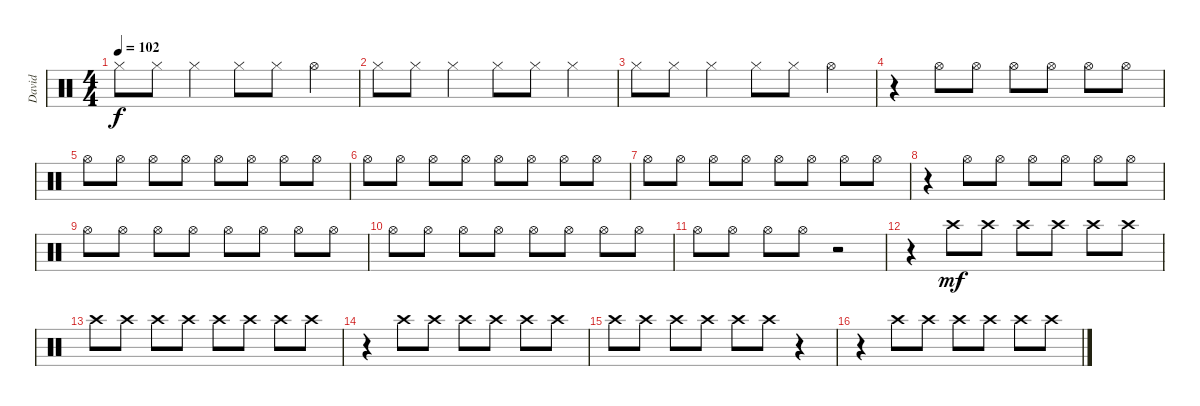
\track ("David" "David") {instrument percussion}
\staff {score}
\articulation defaults
\ts (4 4)
\tempo 102
\clef neutral
\ks c "Hi-Hat (closed)".8{dy f} "Hi-Hat (closed)".8 "Hi-Hat (closed)".4 "Hi-Hat (closed)".8 "Hi-Hat (closed)".8 "Hi-Hat (open)".4
|
"Hi-Hat (closed)".8 "Hi-Hat (closed)".8 "Hi-Hat (closed)".4 "Hi-Hat (closed)".8 "Hi-Hat (closed)".8 "Hi-Hat (closed)".4 |
"Hi-Hat (closed)".8 "Hi-Hat (closed)".8 "Hi-Hat (closed)".4 "Hi-Hat (closed)".8 "Hi-Hat (closed)".8 "Hi-Hat (open)".4 |
r.4 "Hi-Hat (open)".8 "Hi-Hat (open)".8 "Hi-Hat (open)".8 "Hi-Hat (open)".8 "Hi-Hat (open)".8 "Hi-Hat (open)".8 |
"Hi-Hat (open)".8 "Hi-Hat (open)".8 "Hi-Hat (open)".8 "Hi-Hat (open)".8 "Hi-Hat (open)".8 "Hi-Hat (open)".8 "Hi-Hat (open)".8 "Hi-Hat (open)".8 |
"Hi-Hat (open)".8 "Hi-Hat (open)".8 "Hi-Hat (open)".8 "Hi-Hat (open)".8 "Hi-Hat (open)".8 "Hi-Hat (open)".8 "Hi-Hat (open)".8 "Hi-Hat (open)".8 |
"Hi-Hat (open)".8 "Hi-Hat (open)".8 "Hi-Hat (open)".8 "Hi-Hat (open)".8 "Hi-Hat (open)".8 "Hi-Hat (open)".8 "Hi-Hat (open)".8 "Hi-Hat (open)".8 |
r.4 "Hi-Hat (open)".8 "Hi-Hat (open)".8 "Hi-Hat (open)".8 "Hi-Hat (open)".8 "Hi-Hat (open)".8 "Hi-Hat (open)".8 |
"Hi-Hat (open)".8 "Hi-Hat (open)".8 "Hi-Hat (open)".8 "Hi-Hat (open)".8 "Hi-Hat (open)".8 "Hi-Hat (open)".8 "Hi-Hat (open)".8 "Hi-Hat (open)".8 |
"Hi-Hat (open)".8 "Hi-Hat (open)".8 "Hi-Hat (open)".8 "Hi-Hat (open)".8 "Hi-Hat (open)".8 "Hi-Hat (open)".8 "Hi-Hat (open)".8 "Hi-Hat (open)".8 |
"Hi-Hat (open)".8 "Hi-Hat (open)".8 "Hi-Hat (open)".8 "Hi-Hat (open)".8 r.2 |
r.4 "Crash high (hit)".8{dy mf} "Crash high (hit)".8 "Crash high (hit)".8 "Crash high (hit)".8 "Crash high (hit)".8 "Crash high (hit)".8 |
"Crash high (hit)".8 "Crash high (hit)".8 "Crash high (hit)".8 "Crash high (hit)".8 "Crash high (hit)".8 "Crash high (hit)".8 "Crash high (hit)".8 "Crash high (hit)".8 |
r.4 "Crash high (hit)".8 "Crash high (hit)".8 "Crash high (hit)".8 "Crash high (hit)".8 "Crash high (hit)".8 "Crash high (hit)".8 |
"Crash high (hit)".8 "Crash high (hit)".8 "Crash high (hit)".8 "Crash high (hit)".8 "Crash high (hit)".8 "Crash high (hit)".8 r.4 |
r.4 "Crash high (hit)".8 "Crash high (hit)".8 "Crash high (hit)".8 "Crash high (hit)".8 "Crash high (hit)".8 "Crash high (hit)".8
